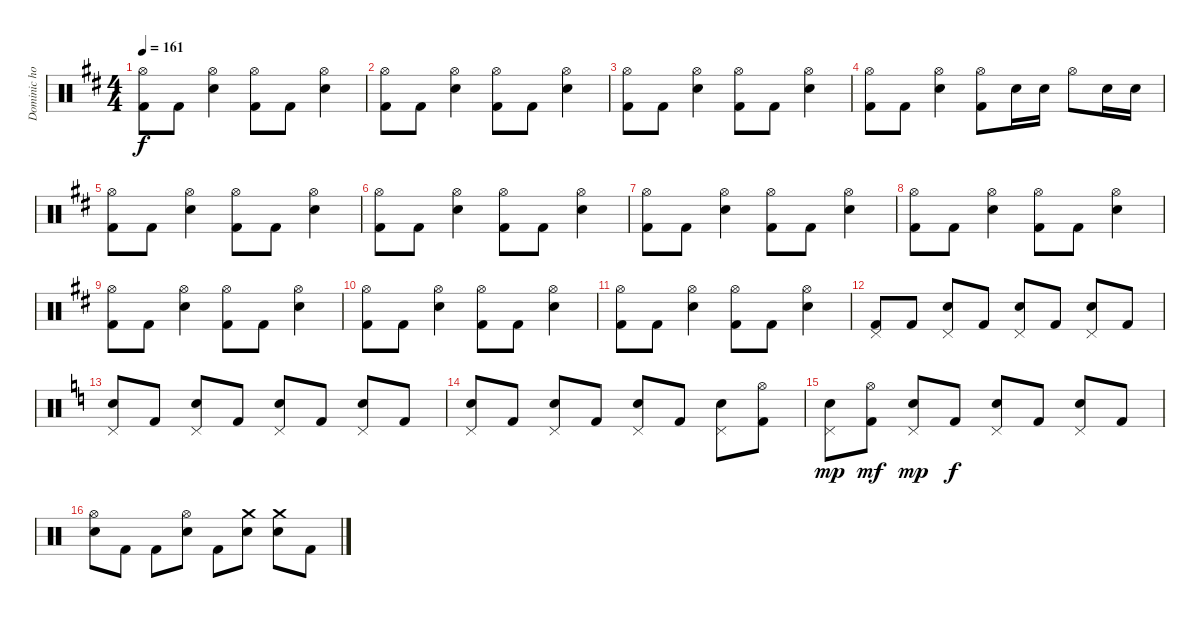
\track ("Dominic howard" "Dominic ho") {instrument percussion}
\staff {score}
\articulation defaults
\ts (4 4)
\tempo 161
\clef neutral
\ks d
("Hi-Hat (open)" "Kick (hit) 2").8{dy f} "Kick (hit) 2".8 ("Hi-Hat (open)" "Electric Snare (hit)").4 ("Hi-Hat (open)" "Kick (hit) 2").8 "Kick (hit) 2".8 ("Hi-Hat (open)" "Electric Snare (hit)").4 |
("Hi-Hat (open)" "Kick (hit) 2").8 "Kick (hit) 2".8 ("Hi-Hat (open)" "Electric Snare (hit)").4 ("Hi-Hat (open)" "Kick (hit) 2").8 "Kick (hit) 2".8 ("Hi-Hat (open)" "Electric Snare (hit)").4 |
("Hi-Hat (open)" "Kick (hit) 2").8 "Kick (hit) 2".8 ("Hi-Hat (open)" "Electric Snare (hit)").4 ("Hi-Hat (open)" "Kick (hit) 2").8 "Kick (hit) 2".8 ("Hi-Hat (open)" "Electric Snare (hit)").4 |
("Hi-Hat (open)" "Kick (hit) 2").8 "Kick (hit) 2".8 ("Hi-Hat (open)" "Electric Snare (hit)").4 ("Hi-Hat (open)" "Kick (hit) 2").8 "Electric Snare (hit)".16 "Electric Snare (hit)".16 "Hi-Hat (open)".8 "Electric Snare (hit)".16 "Electric Snare (hit)".16 |
("Hi-Hat (open)" "Kick (hit) 2").8 "Kick (hit) 2".8 ("Hi-Hat (open)" "Electric Snare (hit)").4 ("Hi-Hat (open)" "Kick (hit) 2").8 "Kick (hit) 2".8 ("Hi-Hat (open)" "Electric Snare (hit)").4 |
("Hi-Hat (open)" "Kick (hit) 2").8 "Kick (hit) 2".8 ("Hi-Hat (open)" "Electric Snare (hit)").4 ("Hi-Hat (open)" "Kick (hit) 2").8 "Kick (hit) 2".8 ("Hi-Hat (open)" "Electric Snare (hit)").4 |
("Hi-Hat (open)" "Kick (hit) 2").8 "Kick (hit) 2".8 ("Hi-Hat (open)" "Electric Snare (hit)").4 ("Hi-Hat (open)" "Kick (hit) 2").8 "Kick (hit) 2".8 ("Hi-Hat (open)" "Electric Snare (hit)").4 |
("Hi-Hat (open)" "Kick (hit) 2").8 "Kick (hit) 2".8 ("Hi-Hat (open)" "Electric Snare (hit)").4 ("Hi-Hat (open)" "Kick (hit) 2").8 "Kick (hit) 2".8 ("Hi-Hat (open)" "Electric Snare (hit)").4 |
("Hi-Hat (open)" "Kick (hit) 2").8 "Kick (hit) 2".8 ("Hi-Hat (open)" "Electric Snare (hit)").4 ("Hi-Hat (open)" "Kick (hit) 2").8 "Kick (hit) 2".8 ("Hi-Hat (open)" "Electric Snare (hit)").4 |
("Hi-Hat (open)" "Kick (hit) 2").8 "Kick (hit) 2".8 ("Hi-Hat (open)" "Electric Snare (hit)").4 ("Hi-Hat (open)" "Kick (hit) 2").8 "Kick (hit) 2".8 ("Hi-Hat (open)" "Electric Snare (hit)").4 |
("Hi-Hat (open)" "Kick (hit) 2").8 "Kick (hit) 2".8 ("Hi-Hat (open)" "Electric Snare (hit)").4 ("Hi-Hat (open)" "Kick (hit) 2").8 "Kick (hit) 2".8 ("Hi-Hat (open)" "Electric Snare (hit)").4 |
("Pedal Hi-Hat (hit)" "Kick (hit) 2").8 "Kick (hit) 2".8 ("Pedal Hi-Hat (hit)" "Electric Snare (hit)").8 "Kick (hit) 2".8 ("Pedal Hi-Hat (hit)" "Electric Snare (hit)").8 "Kick (hit) 2".8 ("Pedal Hi-Hat (hit)" "Electric Snare (hit)").8 "Kick (hit) 2".8 |
\ks c
("Pedal Hi-Hat (hit)" "Electric Snare (hit)").8 "Kick (hit) 2".8 ("Pedal Hi-Hat (hit)" "Electric Snare (hit)").8 "Kick (hit) 2".8 ("Pedal Hi-Hat (hit)" "Electric Snare (hit)").8 "Kick (hit) 2".8 ("Pedal Hi-Hat (hit)" "Electric Snare (hit)").8 "Kick (hit) 2".8 |
("Pedal Hi-Hat (hit)" "Electric Snare (hit)").8 "Kick (hit) 2".8 ("Pedal Hi-Hat (hit)" "Electric Snare (hit)").8 "Kick (hit) 2".8 ("Pedal Hi-Hat (hit)" "Electric Snare (hit)").8 "Kick (hit) 2".8 ("Pedal Hi-Hat (hit)" "Electric Snare (hit)").8 ("Hi-Hat (open)" "Kick (hit) 2").8 |
("Pedal Hi-Hat (hit)" "Electric Snare (hit)").8{dy mp} ("Hi-Hat (open)" "Kick (hit) 2").8{dy mf} ("Pedal Hi-Hat (hit)" "Electric Snare (hit)").8{dy mp} "Kick (hit) 2".8{dy f} ("Pedal Hi-Hat (hit)" "Electric Snare (hit)").8 "Kick (hit) 2".8 ("Pedal Hi-Hat (hit)" "Electric Snare (hit)").8 "Kick (hit) 2".8 |
("Hi-Hat (open)" "Electric Snare (hit)").8 "Kick (hit) 2".8 "Kick (hit) 2".8 ("Hi-Hat (open)" "Electric Snare (hit)").8 "Kick (hit) 2".8 ("Crash medium (hit)" "Electric Snare (hit)").8 ("Crash medium (hit)" "Electric Snare (hit)").8 "Kick (hit) 2".8
